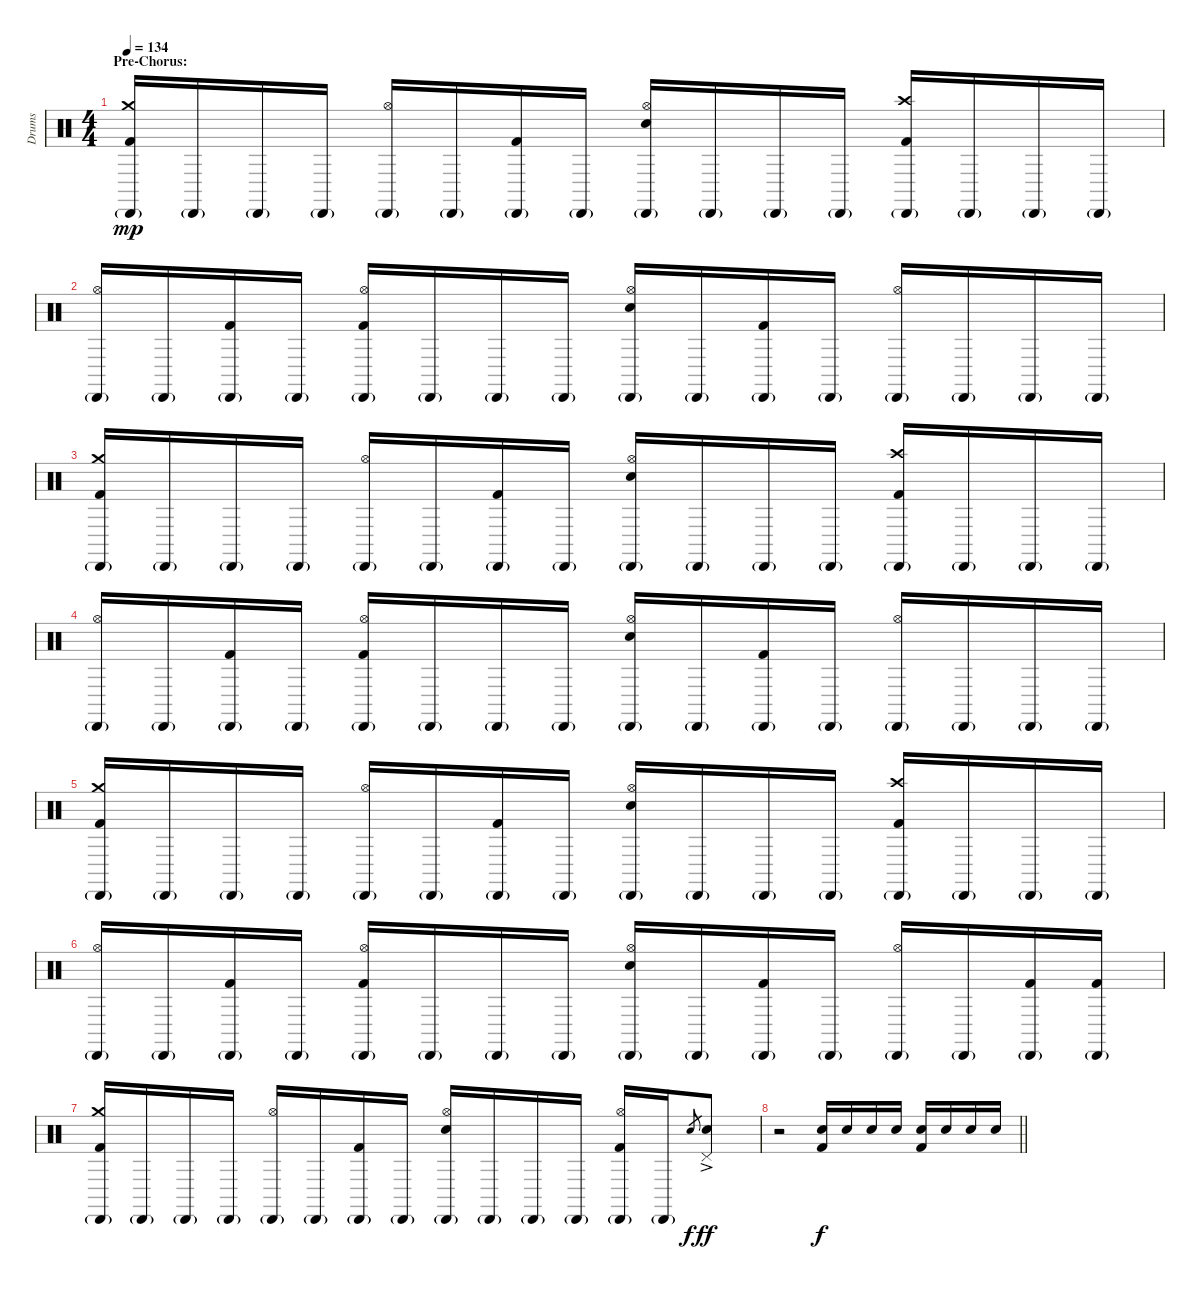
\track ("Drums" "Drums") {instrument percussion}
\staff {score}
\articulation defaults
\ts (4 4)
\section ("" "Pre-Chorus:")
\tempo 134
\clef neutral
\ks c
("Crash medium (hit)" "Cabasa (hit)"{g} "Kick (hit) 2").16{dy mp} "Cabasa (hit)"{g}.16 "Cabasa (hit)"{g}.16 "Cabasa (hit)"{g}.16 ("Cabasa (hit)"{g} "Hi-Hat (open)").16 "Cabasa (hit)"{g}.16 ("Cabasa (hit)"{g} "Kick (hit) 2").16 "Cabasa (hit)"{g}.16 ("Cabasa (hit)"{g} "Hi-Hat (open)" "Electric Snare (hit)").16 "Cabasa (hit)"{g}.16 "Cabasa (hit)"{g}.16 "Cabasa (hit)"{g}.16 ("Crash high (hit)" "Cabasa (hit)"{g} "Kick (hit) 2").16 "Cabasa (hit)"{g}.16 "Cabasa (hit)"{g}.16 "Cabasa (hit)"{g}.16 |
("Cabasa (hit)"{g} "Hi-Hat (open)").16 "Cabasa (hit)"{g}.16 ("Cabasa (hit)"{g} "Kick (hit) 2").16 "Cabasa (hit)"{g}.16 ("Cabasa (hit)"{g} "Hi-Hat (open)" "Kick (hit) 2").16 "Cabasa (hit)"{g}.16 "Cabasa (hit)"{g}.16 "Cabasa (hit)"{g}.16 ("Cabasa (hit)"{g} "Hi-Hat (open)" "Electric Snare (hit)").16 "Cabasa (hit)"{g}.16 ("Cabasa (hit)"{g} "Kick (hit) 2").16 "Cabasa (hit)"{g}.16 ("Cabasa (hit)"{g} "Hi-Hat (open)").16 "Cabasa (hit)"{g}.16 "Cabasa (hit)"{g}.16 "Cabasa (hit)"{g}.16 |
("Crash medium (hit)" "Cabasa (hit)"{g} "Kick (hit) 2").16 "Cabasa (hit)"{g}.16 "Cabasa (hit)"{g}.16 "Cabasa (hit)"{g}.16 ("Cabasa (hit)"{g} "Hi-Hat (open)").16 "Cabasa (hit)"{g}.16 ("Cabasa (hit)"{g} "Kick (hit) 2").16 "Cabasa (hit)"{g}.16 ("Cabasa (hit)"{g} "Hi-Hat (open)" "Electric Snare (hit)").16 "Cabasa (hit)"{g}.16 "Cabasa (hit)"{g}.16 "Cabasa (hit)"{g}.16 ("Crash high (hit)" "Cabasa (hit)"{g} "Kick (hit) 2").16 "Cabasa (hit)"{g}.16 "Cabasa (hit)"{g}.16 "Cabasa (hit)"{g}.16 |
("Cabasa (hit)"{g} "Hi-Hat (open)").16 "Cabasa (hit)"{g}.16 ("Cabasa (hit)"{g} "Kick (hit) 2").16 "Cabasa (hit)"{g}.16 ("Cabasa (hit)"{g} "Hi-Hat (open)" "Kick (hit) 2").16 "Cabasa (hit)"{g}.16 "Cabasa (hit)"{g}.16 "Cabasa (hit)"{g}.16 ("Cabasa (hit)"{g} "Hi-Hat (open)" "Electric Snare (hit)").16 "Cabasa (hit)"{g}.16 ("Cabasa (hit)"{g} "Kick (hit) 2").16 "Cabasa (hit)"{g}.16 ("Cabasa (hit)"{g} "Hi-Hat (open)").16 "Cabasa (hit)"{g}.16 "Cabasa (hit)"{g}.16 "Cabasa (hit)"{g}.16 |
("Crash medium (hit)" "Cabasa (hit)"{g} "Kick (hit) 2").16 "Cabasa (hit)"{g}.16 "Cabasa (hit)"{g}.16 "Cabasa (hit)"{g}.16 ("Cabasa (hit)"{g} "Hi-Hat (open)").16 "Cabasa (hit)"{g}.16 ("Cabasa (hit)"{g} "Kick (hit) 2").16 "Cabasa (hit)"{g}.16 ("Cabasa (hit)"{g} "Hi-Hat (open)" "Electric Snare (hit)").16 "Cabasa (hit)"{g}.16 "Cabasa (hit)"{g}.16 "Cabasa (hit)"{g}.16 ("Crash high (hit)" "Cabasa (hit)"{g} "Kick (hit) 2").16 "Cabasa (hit)"{g}.16 "Cabasa (hit)"{g}.16 "Cabasa (hit)"{g}.16 |
("Cabasa (hit)"{g} "Hi-Hat (open)").16 "Cabasa (hit)"{g}.16 ("Cabasa (hit)"{g} "Kick (hit) 2").16 "Cabasa (hit)"{g}.16 ("Cabasa (hit)"{g} "Hi-Hat (open)" "Kick (hit) 2").16 "Cabasa (hit)"{g}.16 "Cabasa (hit)"{g}.16 "Cabasa (hit)"{g}.16 ("Cabasa (hit)"{g} "Hi-Hat (open)" "Electric Snare (hit)").16 "Cabasa (hit)"{g}.16 ("Cabasa (hit)"{g} "Kick (hit) 2").16 "Cabasa (hit)"{g}.16 ("Cabasa (hit)"{g} "Hi-Hat (open)").16 "Cabasa (hit)"{g}.16 ("Cabasa (hit)"{g} "Kick (hit) 2").16 ("Cabasa (hit)"{g} "Kick (hit) 2").16 |
("Cabasa (hit)"{g} "Crash medium (hit)" "Kick (hit) 2").16 "Cabasa (hit)"{g}.16 "Cabasa (hit)"{g}.16 "Cabasa (hit)"{g}.16 ("Cabasa (hit)"{g} "Hi-Hat (open)").16 "Cabasa (hit)"{g}.16 ("Cabasa (hit)"{g} "Kick (hit) 2").16 "Cabasa (hit)"{g}.16 ("Cabasa (hit)"{g} "Hi-Hat (open)" "Electric Snare (hit)").16 "Cabasa (hit)"{g}.16 "Cabasa (hit)"{g}.16 "Cabasa (hit)"{g}.16 ("Cabasa (hit)"{g} "Hi-Hat (open)" "Kick (hit) 2").16 "Cabasa (hit)"{g}.16 "Electric Snare (hit)".8{gr dy f} ("Electric Snare (hit)"{ac} "Pedal Hi-Hat (hit)").8{dy ff} |
\barLineRight lightlight
r.2 ("Electric Snare (hit)" "Kick (hit) 2").16{dy f} "Electric Snare (hit)".16 "Electric Snare (hit)".16 "Electric Snare (hit)".16 ("Electric Snare (hit)" "Kick (hit) 2").16 "Electric Snare (hit)".16 "Electric Snare (hit)".16 "Electric Snare (hit)".16
